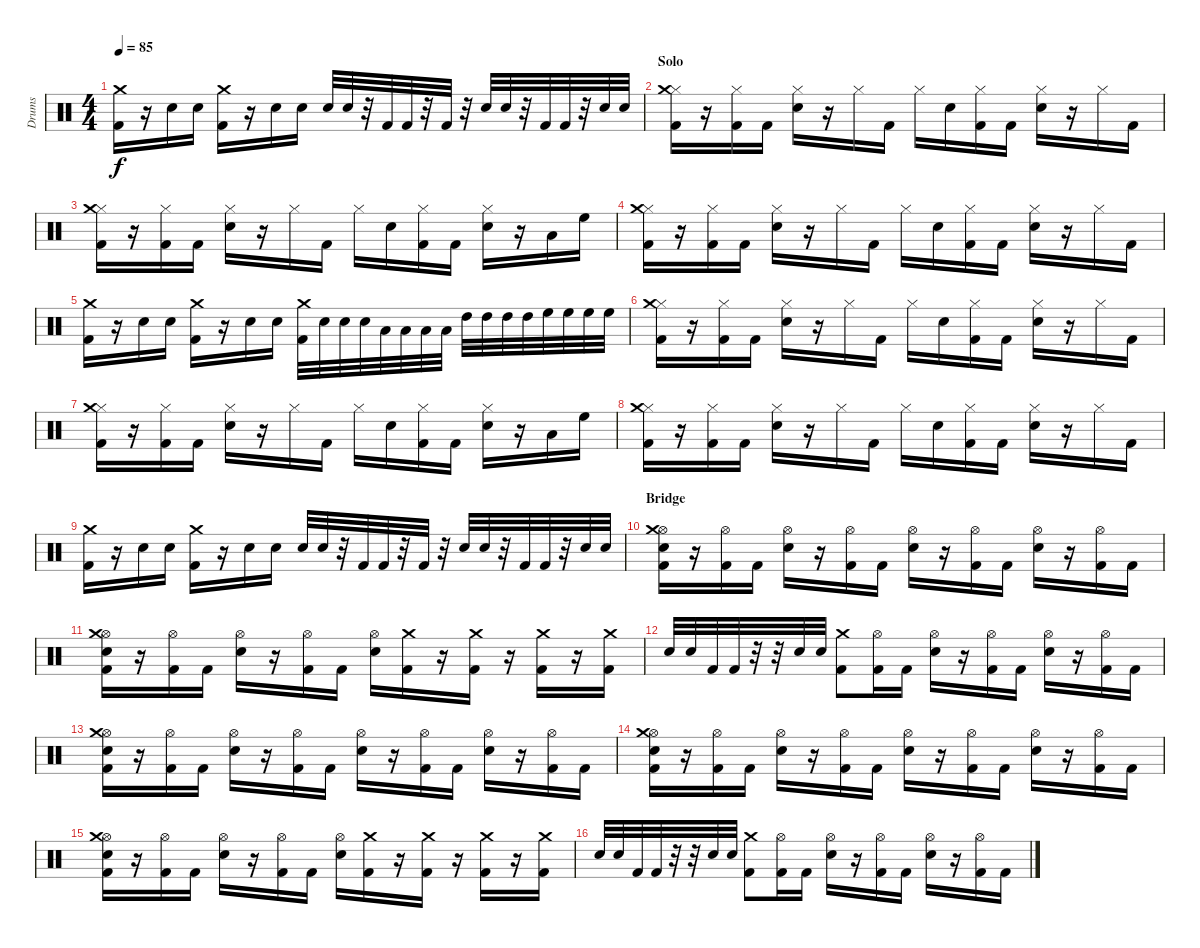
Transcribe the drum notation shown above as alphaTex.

\track ("Drums" "Drums") {instrument percussion}
\staff {score}
\articulation defaults
\ts (4 4)
\tempo 85
\clef neutral
\ks c
("Kick (hit) 2" "Crash medium (hit)").16{dy f} r.16 "Snare (hit) 2".16 "Snare (hit) 2".16 ("Kick (hit) 2" "Crash medium (hit)").16 r.16 "Snare (hit) 2".16 "Snare (hit) 2".16 "Snare (hit) 2".32 "Snare (hit) 2".32 r.32 "Kick (hit) 2".32 "Kick (hit) 2".32 r.32 "Kick (hit) 2".32 r.32 "Snare (hit) 2".32 "Snare (hit) 2".32 r.32 "Kick (hit) 2".32 "Kick (hit) 2".32 r.32 "Snare (hit) 2".32 "Snare (hit) 2".32 |
\section ("" "Solo")
("Hi-Hat (closed)" "Kick (hit) 2" "Crash medium (hit)").16 r.16 ("Hi-Hat (closed)" "Kick (hit) 2").16 "Kick (hit) 2".16 ("Hi-Hat (closed)" "Snare (hit) 2").16 r.16 "Hi-Hat (closed)".16 "Kick (hit) 2".16 "Hi-Hat (closed)".16 "Snare (hit) 2".16 ("Hi-Hat (closed)" "Kick (hit) 2").16 "Kick (hit) 2".16 ("Hi-Hat (closed)" "Snare (hit) 2").16 r.16 "Hi-Hat (closed)".16 "Kick (hit) 2".16 |
("Hi-Hat (closed)" "Kick (hit) 2" "Crash medium (hit)").16 r.16 ("Hi-Hat (closed)" "Kick (hit) 2").16 "Kick (hit) 2".16 ("Hi-Hat (closed)" "Snare (hit) 2").16 r.16 "Hi-Hat (closed)".16 "Kick (hit) 2".16 "Hi-Hat (closed)".16 "Snare (hit) 2".16 ("Hi-Hat (closed)" "Kick (hit) 2").16 "Kick (hit) 2".16 ("Hi-Hat (closed)" "Snare (hit) 2").16 r.16 "Low Tom (hit)".16 "High Floor Tom (hit)".16 |
("Hi-Hat (closed)" "Kick (hit) 2" "Crash medium (hit)").16 r.16 ("Hi-Hat (closed)" "Kick (hit) 2").16 "Kick (hit) 2".16 ("Hi-Hat (closed)" "Snare (hit) 2").16 r.16 "Hi-Hat (closed)".16 "Kick (hit) 2".16 "Hi-Hat (closed)".16 "Snare (hit) 2".16 ("Hi-Hat (closed)" "Kick (hit) 2").16 "Kick (hit) 2".16 ("Hi-Hat (closed)" "Snare (hit) 2").16 r.16 "Hi-Hat (closed)".16 "Kick (hit) 2".16 |
("Kick (hit) 2" "Crash medium (hit)").16 r.16 "Snare (hit) 2".16 "Snare (hit) 2".16 ("Kick (hit) 2" "Crash medium (hit)").16 r.16 "Snare (hit) 2".16 "Snare (hit) 2".16 ("Kick (hit) 2" "Crash medium (hit)").32 "Snare (hit) 2".32 "Snare (hit) 2".32 "Snare (hit) 2".32 "Low Tom (hit)".32 "Low Tom (hit)".32 "Low Tom (hit)".32 "Low Tom (hit)".32 "High Tom (hit)".32 "High Tom (hit)".32 "High Tom (hit)".32 "High Tom (hit)".32 "High Floor Tom (hit)".32 "High Floor Tom (hit)".32 "High Floor Tom (hit)".32 "High Floor Tom (hit)".32 |
("Hi-Hat (closed)" "Kick (hit) 2" "Crash medium (hit)").16 r.16 ("Hi-Hat (closed)" "Kick (hit) 2").16 "Kick (hit) 2".16 ("Hi-Hat (closed)" "Snare (hit) 2").16 r.16 "Hi-Hat (closed)".16 "Kick (hit) 2".16 "Hi-Hat (closed)".16 "Snare (hit) 2".16 ("Hi-Hat (closed)" "Kick (hit) 2").16 "Kick (hit) 2".16 ("Hi-Hat (closed)" "Snare (hit) 2").16 r.16 "Hi-Hat (closed)".16 "Kick (hit) 2".16 |
("Hi-Hat (closed)" "Kick (hit) 2" "Crash medium (hit)").16 r.16 ("Hi-Hat (closed)" "Kick (hit) 2").16 "Kick (hit) 2".16 ("Hi-Hat (closed)" "Snare (hit) 2").16 r.16 "Hi-Hat (closed)".16 "Kick (hit) 2".16 "Hi-Hat (closed)".16 "Snare (hit) 2".16 ("Hi-Hat (closed)" "Kick (hit) 2").16 "Kick (hit) 2".16 ("Hi-Hat (closed)" "Snare (hit) 2").16 r.16 "Low Tom (hit)".16 "High Floor Tom (hit)".16 |
("Hi-Hat (closed)" "Kick (hit) 2" "Crash medium (hit)").16 r.16 ("Hi-Hat (closed)" "Kick (hit) 2").16 "Kick (hit) 2".16 ("Hi-Hat (closed)" "Snare (hit) 2").16 r.16 "Hi-Hat (closed)".16 "Kick (hit) 2".16 "Hi-Hat (closed)".16 "Snare (hit) 2".16 ("Hi-Hat (closed)" "Kick (hit) 2").16 "Kick (hit) 2".16 ("Hi-Hat (closed)" "Snare (hit) 2").16 r.16 "Hi-Hat (closed)".16 "Kick (hit) 2".16 |
("Kick (hit) 2" "Crash medium (hit)").16 r.16 "Snare (hit) 2".16 "Snare (hit) 2".16 ("Kick (hit) 2" "Crash medium (hit)").16 r.16 "Snare (hit) 2".16 "Snare (hit) 2".16 "Snare (hit) 2".32 "Snare (hit) 2".32 r.32 "Kick (hit) 2".32 "Kick (hit) 2".32 r.32 "Kick (hit) 2".32 r.32 "Snare (hit) 2".32 "Snare (hit) 2".32 r.32 "Kick (hit) 2".32 "Kick (hit) 2".32 r.32 "Snare (hit) 2".32 "Snare (hit) 2".32 |
\section ("" "Bridge")
("Hi-Hat (open)" "Snare (hit) 2" "Kick (hit) 2" "Crash medium (hit)").16 r.16 ("Hi-Hat (open)" "Kick (hit) 2").16 "Kick (hit) 2".16 ("Hi-Hat (open)" "Snare (hit) 2").16 r.16 ("Hi-Hat (open)" "Kick (hit) 2").16 "Kick (hit) 2".16 ("Hi-Hat (open)" "Snare (hit) 2").16 r.16 ("Hi-Hat (open)" "Kick (hit) 2").16 "Kick (hit) 2".16 ("Hi-Hat (open)" "Snare (hit) 2").16 r.16 ("Hi-Hat (open)" "Kick (hit) 2").16 "Kick (hit) 2".16 |
("Hi-Hat (open)" "Snare (hit) 2" "Kick (hit) 2" "Crash medium (hit)").16 r.16 ("Hi-Hat (open)" "Kick (hit) 2").16 "Kick (hit) 2".16 ("Hi-Hat (open)" "Snare (hit) 2").16 r.16 ("Hi-Hat (open)" "Kick (hit) 2").16 "Kick (hit) 2".16 ("Hi-Hat (open)" "Snare (hit) 2").16 ("Kick (hit) 2" "Crash medium (hit)").16 r.16 ("Kick (hit) 2" "Crash medium (hit)").16 r.16 ("Kick (hit) 2" "Crash medium (hit)").16 r.16 ("Kick (hit) 2" "Crash medium (hit)").16 |
"Snare (hit) 2".32 "Snare (hit) 2".32 "Kick (hit) 2".32 "Kick (hit) 2".32 r.32 r.32 "Snare (hit) 2".32 "Snare (hit) 2".32 ("Kick (hit) 2" "Crash medium (hit)").8 ("Hi-Hat (open)" "Kick (hit) 2").16 "Kick (hit) 2".16 ("Hi-Hat (open)" "Snare (hit) 2").16 r.16 ("Hi-Hat (open)" "Kick (hit) 2").16 "Kick (hit) 2".16 ("Hi-Hat (open)" "Snare (hit) 2").16 r.16 ("Hi-Hat (open)" "Kick (hit) 2").16 "Kick (hit) 2".16 |
("Hi-Hat (open)" "Snare (hit) 2" "Kick (hit) 2" "Crash medium (hit)").16 r.16 ("Hi-Hat (open)" "Kick (hit) 2").16 "Kick (hit) 2".16 ("Hi-Hat (open)" "Snare (hit) 2").16 r.16 ("Hi-Hat (open)" "Kick (hit) 2").16 "Kick (hit) 2".16 ("Hi-Hat (open)" "Snare (hit) 2").16 r.16 ("Hi-Hat (open)" "Kick (hit) 2").16 "Kick (hit) 2".16 ("Hi-Hat (open)" "Snare (hit) 2").16 r.16 ("Hi-Hat (open)" "Kick (hit) 2").16 "Kick (hit) 2".16 |
("Hi-Hat (open)" "Snare (hit) 2" "Kick (hit) 2" "Crash medium (hit)").16 r.16 ("Hi-Hat (open)" "Kick (hit) 2").16 "Kick (hit) 2".16 ("Hi-Hat (open)" "Snare (hit) 2").16 r.16 ("Hi-Hat (open)" "Kick (hit) 2").16 "Kick (hit) 2".16 ("Hi-Hat (open)" "Snare (hit) 2").16 r.16 ("Hi-Hat (open)" "Kick (hit) 2").16 "Kick (hit) 2".16 ("Hi-Hat (open)" "Snare (hit) 2").16 r.16 ("Hi-Hat (open)" "Kick (hit) 2").16 "Kick (hit) 2".16 |
("Hi-Hat (open)" "Snare (hit) 2" "Kick (hit) 2" "Crash medium (hit)").16 r.16 ("Hi-Hat (open)" "Kick (hit) 2").16 "Kick (hit) 2".16 ("Hi-Hat (open)" "Snare (hit) 2").16 r.16 ("Hi-Hat (open)" "Kick (hit) 2").16 "Kick (hit) 2".16 ("Hi-Hat (open)" "Snare (hit) 2").16 ("Kick (hit) 2" "Crash medium (hit)").16 r.16 ("Kick (hit) 2" "Crash medium (hit)").16 r.16 ("Kick (hit) 2" "Crash medium (hit)").16 r.16 ("Kick (hit) 2" "Crash medium (hit)").16 |
"Snare (hit) 2".32 "Snare (hit) 2".32 "Kick (hit) 2".32 "Kick (hit) 2".32 r.32 r.32 "Snare (hit) 2".32 "Snare (hit) 2".32 ("Kick (hit) 2" "Crash medium (hit)").8 ("Hi-Hat (open)" "Kick (hit) 2").16 "Kick (hit) 2".16 ("Hi-Hat (open)" "Snare (hit) 2").16 r.16 ("Hi-Hat (open)" "Kick (hit) 2").16 "Kick (hit) 2".16 ("Hi-Hat (open)" "Snare (hit) 2").16 r.16 ("Hi-Hat (open)" "Kick (hit) 2").16 "Kick (hit) 2".16
